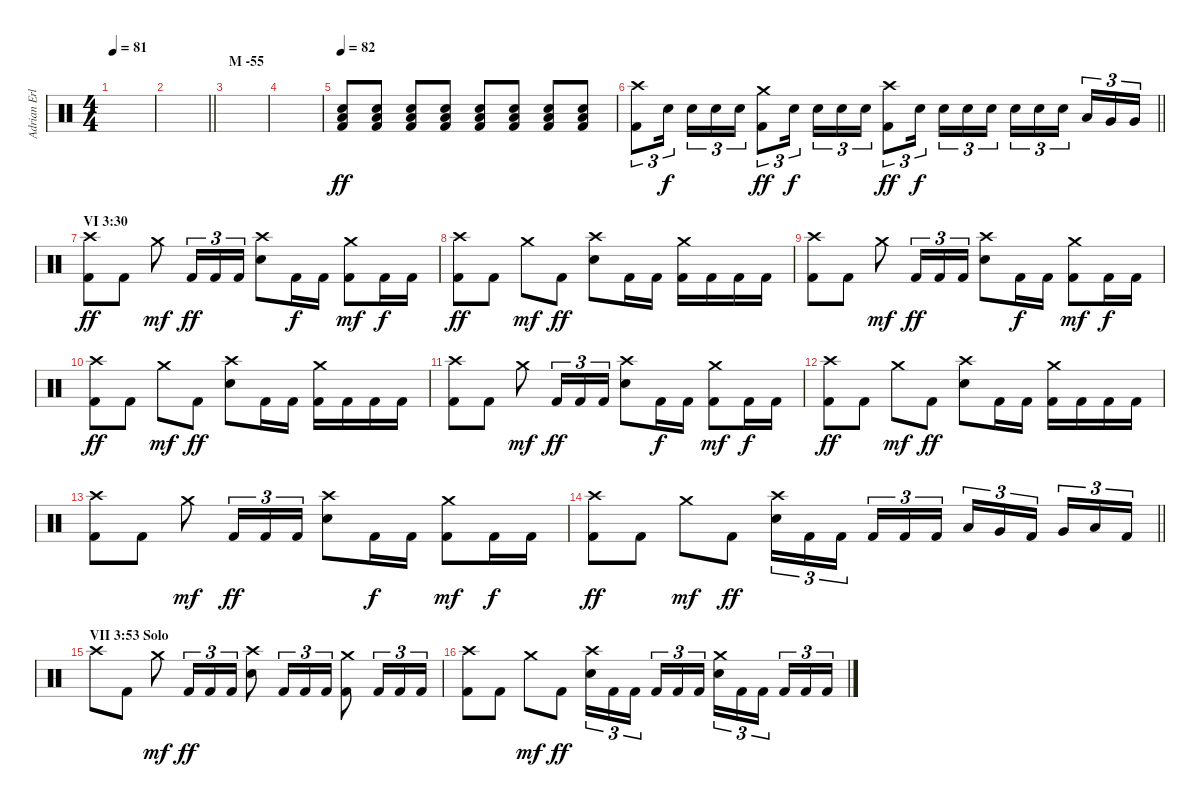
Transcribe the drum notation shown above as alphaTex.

\track ("Adrian Erlandsson (drums)" "Adrian Erl") {instrument percussion}
\staff {score}
\articulation defaults
\ts (4 4)
\tempo 81
\clef neutral
\ks c
|
\barLineRight lightlight
|
\section ("" "M -55")
|
|
\tempo 82
("Electric Snare (hit)" "Low Floor Tom (hit)" "Kick (hit) 2").8{dy ff} ("Electric Snare (hit)" "Low Floor Tom (hit)" "Kick (hit) 2").8 ("Electric Snare (hit)" "Low Floor Tom (hit)" "Kick (hit) 2").8 ("Electric Snare (hit)" "Low Floor Tom (hit)" "Kick (hit) 2").8 ("Electric Snare (hit)" "Low Floor Tom (hit)" "Kick (hit) 2").8 ("Electric Snare (hit)" "Low Floor Tom (hit)" "Kick (hit) 2").8 ("Electric Snare (hit)" "Low Floor Tom (hit)" "Kick (hit) 2").8 ("Electric Snare (hit)" "Low Floor Tom (hit)" "Kick (hit) 2").8 |
\barLineRight lightlight
("Crash high (hit)" "Kick (hit) 2").8{tu (3 2)} "Electric Snare (hit)".16{tu (3 2) dy f beam splitsecondary} "Electric Snare (hit)".16{tu (3 2)} "Electric Snare (hit)".16{tu (3 2)} "Electric Snare (hit)".16{tu (3 2)} ("Crash medium (hit)" "Kick (hit) 2").8{tu (3 2) dy ff} "Electric Snare (hit)".16{tu (3 2) dy f beam splitsecondary} "Electric Snare (hit)".16{tu (3 2)} "Electric Snare (hit)".16{tu (3 2)} "Electric Snare (hit)".16{tu (3 2)} ("Crash high (hit)" "Kick (hit) 2").8{tu (3 2) dy ff} "Electric Snare (hit)".16{tu (3 2) dy f beam splitsecondary} "Electric Snare (hit)".16{tu (3 2)} "Electric Snare (hit)".16{tu (3 2)} "Electric Snare (hit)".16{tu (3 2)} "Electric Snare (hit)".16{tu (3 2)} "Electric Snare (hit)".16{tu (3 2)} "Electric Snare (hit)".16{tu (3 2) beam splitsecondary} "Low Tom (hit)".16{tu (3 2)} "Very Low Tom (hit)".16{tu (3 2)} "Very Low Tom (hit)".16{tu (3 2)} |
\section ("" "VI 3:30")
("Crash high (hit)" "Kick (hit) 2").8{dy ff} "Kick (hit) 2".8 "Crash medium (hit)".8{dy mf} "Kick (hit) 2".16{tu (3 2) dy ff} "Kick (hit) 2".16{tu (3 2)} "Kick (hit) 2".16{tu (3 2)} ("Crash high (hit)" "Electric Snare (hit)").8 "Kick (hit) 2".16{dy f} "Kick (hit) 2".16 ("Crash medium (hit)" "Kick (hit) 2").8{dy mf} "Kick (hit) 2".16{dy f} "Kick (hit) 2".16 |
("Crash high (hit)" "Kick (hit) 2").8{dy ff} "Kick (hit) 2".8 "Crash medium (hit)".8{dy mf} "Kick (hit) 2".8{dy ff} ("Crash high (hit)" "Electric Snare (hit)").8 "Kick (hit) 2".16 "Kick (hit) 2".16 ("Crash medium (hit)" "Kick (hit) 2").16 "Kick (hit) 2".16 "Kick (hit) 2".16 "Kick (hit) 2".16 |
("Crash high (hit)" "Kick (hit) 2").8 "Kick (hit) 2".8 "Crash medium (hit)".8{dy mf} "Kick (hit) 2".16{tu (3 2) dy ff} "Kick (hit) 2".16{tu (3 2)} "Kick (hit) 2".16{tu (3 2)} ("Crash high (hit)" "Electric Snare (hit)").8 "Kick (hit) 2".16{dy f} "Kick (hit) 2".16 ("Crash medium (hit)" "Kick (hit) 2").8{dy mf} "Kick (hit) 2".16{dy f} "Kick (hit) 2".16 |
("Crash high (hit)" "Kick (hit) 2").8{dy ff} "Kick (hit) 2".8 "Crash medium (hit)".8{dy mf} "Kick (hit) 2".8{dy ff} ("Crash high (hit)" "Electric Snare (hit)").8 "Kick (hit) 2".16 "Kick (hit) 2".16 ("Crash medium (hit)" "Kick (hit) 2").16 "Kick (hit) 2".16 "Kick (hit) 2".16 "Kick (hit) 2".16 |
("Crash high (hit)" "Kick (hit) 2").8 "Kick (hit) 2".8 "Crash medium (hit)".8{dy mf} "Kick (hit) 2".16{tu (3 2) dy ff} "Kick (hit) 2".16{tu (3 2)} "Kick (hit) 2".16{tu (3 2)} ("Crash high (hit)" "Electric Snare (hit)").8 "Kick (hit) 2".16{dy f} "Kick (hit) 2".16 ("Crash medium (hit)" "Kick (hit) 2").8{dy mf} "Kick (hit) 2".16{dy f} "Kick (hit) 2".16 |
("Crash high (hit)" "Kick (hit) 2").8{dy ff} "Kick (hit) 2".8 "Crash medium (hit)".8{dy mf} "Kick (hit) 2".8{dy ff} ("Crash high (hit)" "Electric Snare (hit)").8 "Kick (hit) 2".16 "Kick (hit) 2".16 ("Crash medium (hit)" "Kick (hit) 2").16 "Kick (hit) 2".16 "Kick (hit) 2".16 "Kick (hit) 2".16 |
("Crash high (hit)" "Kick (hit) 2").8 "Kick (hit) 2".8 "Crash medium (hit)".8{dy mf} "Kick (hit) 2".16{tu (3 2) dy ff} "Kick (hit) 2".16{tu (3 2)} "Kick (hit) 2".16{tu (3 2)} ("Crash high (hit)" "Electric Snare (hit)").8 "Kick (hit) 2".16{dy f} "Kick (hit) 2".16 ("Crash medium (hit)" "Kick (hit) 2").8{dy mf} "Kick (hit) 2".16{dy f} "Kick (hit) 2".16 |
\barLineRight lightlight
("Crash high (hit)" "Kick (hit) 2").8{dy ff} "Kick (hit) 2".8 "Crash medium (hit)".8{dy mf} "Kick (hit) 2".8{dy ff} ("Crash high (hit)" "Electric Snare (hit)").16{tu (3 2)} "Kick (hit) 2".16{tu (3 2)} "Kick (hit) 2".16{tu (3 2) beam splitsecondary} "Kick (hit) 2".16{tu (3 2)} "Kick (hit) 2".16{tu (3 2)} "Kick (hit) 2".16{tu (3 2)} "Low Tom (hit)".16{tu (3 2)} "Very Low Tom (hit)".16{tu (3 2)} "Kick (hit) 2".16{tu (3 2) beam splitsecondary} "Very Low Tom (hit)".16{tu (3 2)} "Low Floor Tom (hit)".16{tu (3 2)} "Kick (hit) 2".16{tu (3 2)} |
\section ("" "VII 3:53 Solo")
"Crash high (hit)".8 "Kick (hit) 2".8 "Crash medium (hit)".8{dy mf} "Kick (hit) 2".16{tu (3 2) dy ff} "Kick (hit) 2".16{tu (3 2)} "Kick (hit) 2".16{tu (3 2)} ("Crash high (hit)" "Electric Snare (hit)").8 "Kick (hit) 2".16{tu (3 2)} "Kick (hit) 2".16{tu (3 2)} "Kick (hit) 2".16{tu (3 2)} ("Crash medium (hit)" "Kick (hit) 2").8 "Kick (hit) 2".16{tu (3 2)} "Kick (hit) 2".16{tu (3 2)} "Kick (hit) 2".16{tu (3 2)} |
("Crash high (hit)" "Kick (hit) 2").8 "Kick (hit) 2".8 "Crash medium (hit)".8{dy mf} "Kick (hit) 2".8{dy ff} ("Crash high (hit)" "Electric Snare (hit)").16{tu (3 2)} "Kick (hit) 2".16{tu (3 2)} "Kick (hit) 2".16{tu (3 2) beam splitsecondary} "Kick (hit) 2".16{tu (3 2)} "Kick (hit) 2".16{tu (3 2)} "Kick (hit) 2".16{tu (3 2)} ("Crash medium (hit)" "Electric Snare (hit)").16{tu (3 2)} "Kick (hit) 2".16{tu (3 2)} "Kick (hit) 2".16{tu (3 2) beam splitsecondary} "Kick (hit) 2".16{tu (3 2)} "Kick (hit) 2".16{tu (3 2)} "Kick (hit) 2".16{tu (3 2)}
